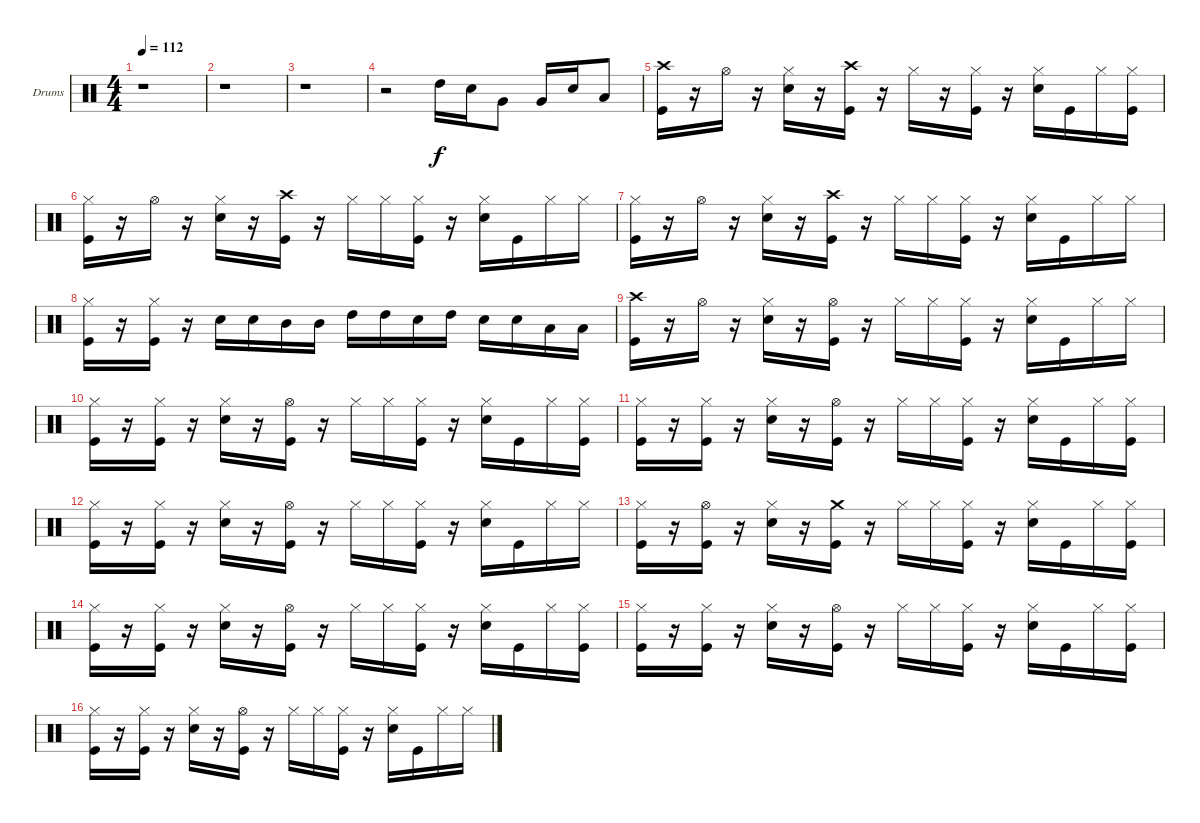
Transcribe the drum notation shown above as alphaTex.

\bracketExtendMode groupsimilarinstruments
\firstSystemTrackNameOrientation horizontal
\otherSystemsTrackNameOrientation horizontal
\track ("Drumkit" "Drums") {instrument percussion}
\staff {score}
\articulation defaults
\ts (4 4)
\beaming (8 2 2 2 2)
\tempo 112
\clef neutral
\ks c
r.1{dy f} |
r.1 |
r.1 |
r.2 "High Tom (hit)".16 "Snare (hit) 2".16 "Very Low Tom (hit)".8 "Very Low Tom (hit)".16 "Snare (hit) 2".16 "Low Tom (hit)".8 |
("Crash high (hit)" "Kick (hit)").16 r.16 "Hi-Hat (open)".16 r.16 ("Hi-Hat (closed)" "Snare (hit) 2").16 r.16 ("Crash high (hit)" "Kick (hit)").16 r.16 "Hi-Hat (closed)".16 r.16 ("Hi-Hat (closed)" "Kick (hit)").16 r.16 ("Hi-Hat (closed)" "Snare (hit) 2").16 "Kick (hit)".16 "Hi-Hat (closed)".16 ("Hi-Hat (closed)" "Kick (hit)").16 |
("Hi-Hat (closed)" "Kick (hit)").16 r.16 "Hi-Hat (open)".16 r.16 ("Hi-Hat (closed)" "Snare (hit) 2").16 r.16 ("Crash high (hit)" "Kick (hit)").16 r.16 "Hi-Hat (closed)".16 "Hi-Hat (closed)".16 ("Hi-Hat (closed)" "Kick (hit)").16 r.16 ("Hi-Hat (closed)" "Snare (hit) 2").16 "Kick (hit)".16 "Hi-Hat (closed)".16 "Hi-Hat (closed)".16 |
("Hi-Hat (closed)" "Kick (hit)").16 r.16 "Hi-Hat (open)".16 r.16 ("Hi-Hat (closed)" "Snare (hit) 2").16 r.16 ("Crash high (hit)" "Kick (hit)").16 r.16 "Hi-Hat (closed)".16 "Hi-Hat (closed)".16 ("Hi-Hat (closed)" "Kick (hit)").16 r.16 ("Hi-Hat (closed)" "Snare (hit) 2").16 "Kick (hit)".16 "Hi-Hat (closed)".16 "Hi-Hat (closed)".16 |
("Hi-Hat (closed)" "Kick (hit)").16 r.16 ("Hi-Hat (closed)" "Kick (hit)").16 r.16 "Snare (hit) 2".16 "Snare (hit) 2".16 "Mid Tom (hit)".16 "Mid Tom (hit)".16 "High Tom (hit)".16 "High Tom (hit)".16 "Snare (hit) 2".16 "High Tom (hit)".16 "Snare (hit) 2".16 "Snare (hit) 2".16 "Low Tom (hit)".16 "Low Tom (hit)".16 |
("Crash high (hit)" "Kick (hit)").16 r.16 "Hi-Hat (open)".16 r.16 ("Hi-Hat (closed)" "Snare (hit) 2").16 r.16 ("Hi-Hat (open)" "Kick (hit)").16 r.16 "Hi-Hat (closed)".16 "Hi-Hat (closed)".16 ("Hi-Hat (closed)" "Kick (hit)").16 r.16 ("Hi-Hat (closed)" "Snare (hit) 2").16 "Kick (hit)".16 "Hi-Hat (closed)".16 "Hi-Hat (closed)".16 |
("Hi-Hat (closed)" "Kick (hit)").16 r.16 ("Hi-Hat (closed)" "Kick (hit)").16 r.16 ("Hi-Hat (closed)" "Snare (hit) 2").16 r.16 ("Hi-Hat (open)" "Kick (hit)").16 r.16 "Hi-Hat (closed)".16 "Hi-Hat (closed)".16 ("Hi-Hat (closed)" "Kick (hit)").16 r.16 ("Hi-Hat (closed)" "Snare (hit) 2").16 "Kick (hit)".16 "Hi-Hat (closed)".16 ("Hi-Hat (closed)" "Kick (hit)").16 |
("Hi-Hat (closed)" "Kick (hit)").16 r.16 ("Hi-Hat (closed)" "Kick (hit)").16 r.16 ("Hi-Hat (closed)" "Snare (hit) 2").16 r.16 ("Hi-Hat (open)" "Kick (hit)").16 r.16 "Hi-Hat (closed)".16 "Hi-Hat (closed)".16 ("Hi-Hat (closed)" "Kick (hit)").16 r.16 ("Hi-Hat (closed)" "Snare (hit) 2").16 "Kick (hit)".16 "Hi-Hat (closed)".16 ("Hi-Hat (closed)" "Kick (hit)").16 |
("Hi-Hat (closed)" "Kick (hit)").16 r.16 ("Hi-Hat (closed)" "Kick (hit)").16 r.16 ("Hi-Hat (closed)" "Snare (hit) 2").16 r.16 ("Hi-Hat (open)" "Kick (hit)").16 r.16 "Hi-Hat (closed)".16 "Hi-Hat (closed)".16 ("Hi-Hat (closed)" "Kick (hit)").16 r.16 ("Hi-Hat (closed)" "Snare (hit) 2").16 "Kick (hit)".16 "Hi-Hat (closed)".16 "Hi-Hat (closed)".16 |
("Hi-Hat (closed)" "Kick (hit)").16 r.16 ("Hi-Hat (open)" "Kick (hit)").16 r.16 ("Hi-Hat (closed)" "Snare (hit) 2").16 r.16 ("Crash medium (hit)" "Kick (hit)").16 r.16 "Hi-Hat (closed)".16 "Hi-Hat (closed)".16 ("Hi-Hat (closed)" "Kick (hit)").16 r.16 ("Hi-Hat (closed)" "Snare (hit) 2").16 "Kick (hit)".16 "Hi-Hat (closed)".16 ("Hi-Hat (closed)" "Kick (hit)").16 |
("Hi-Hat (closed)" "Kick (hit)").16 r.16 ("Hi-Hat (closed)" "Kick (hit)").16 r.16 ("Hi-Hat (closed)" "Snare (hit) 2").16 r.16 ("Hi-Hat (open)" "Kick (hit)").16 r.16 "Hi-Hat (closed)".16 "Hi-Hat (closed)".16 ("Hi-Hat (closed)" "Kick (hit)").16 r.16 ("Hi-Hat (closed)" "Snare (hit) 2").16 "Kick (hit)".16 "Hi-Hat (closed)".16 ("Hi-Hat (closed)" "Kick (hit)").16 |
("Hi-Hat (closed)" "Kick (hit)").16 r.16 ("Hi-Hat (closed)" "Kick (hit)").16 r.16 ("Hi-Hat (closed)" "Snare (hit) 2").16 r.16 ("Hi-Hat (open)" "Kick (hit)").16 r.16 "Hi-Hat (closed)".16 "Hi-Hat (closed)".16 ("Hi-Hat (closed)" "Kick (hit)").16 r.16 ("Hi-Hat (closed)" "Snare (hit) 2").16 "Kick (hit)".16 "Hi-Hat (closed)".16 ("Hi-Hat (closed)" "Kick (hit)").16 |
("Hi-Hat (closed)" "Kick (hit)").16 r.16 ("Hi-Hat (closed)" "Kick (hit)").16 r.16 ("Hi-Hat (closed)" "Snare (hit) 2").16 r.16 ("Hi-Hat (open)" "Kick (hit)").16 r.16 "Hi-Hat (closed)".16 "Hi-Hat (closed)".16 ("Hi-Hat (closed)" "Kick (hit)").16 r.16 ("Hi-Hat (closed)" "Snare (hit) 2").16 "Kick (hit)".16 "Hi-Hat (closed)".16 "Hi-Hat (closed)".16
